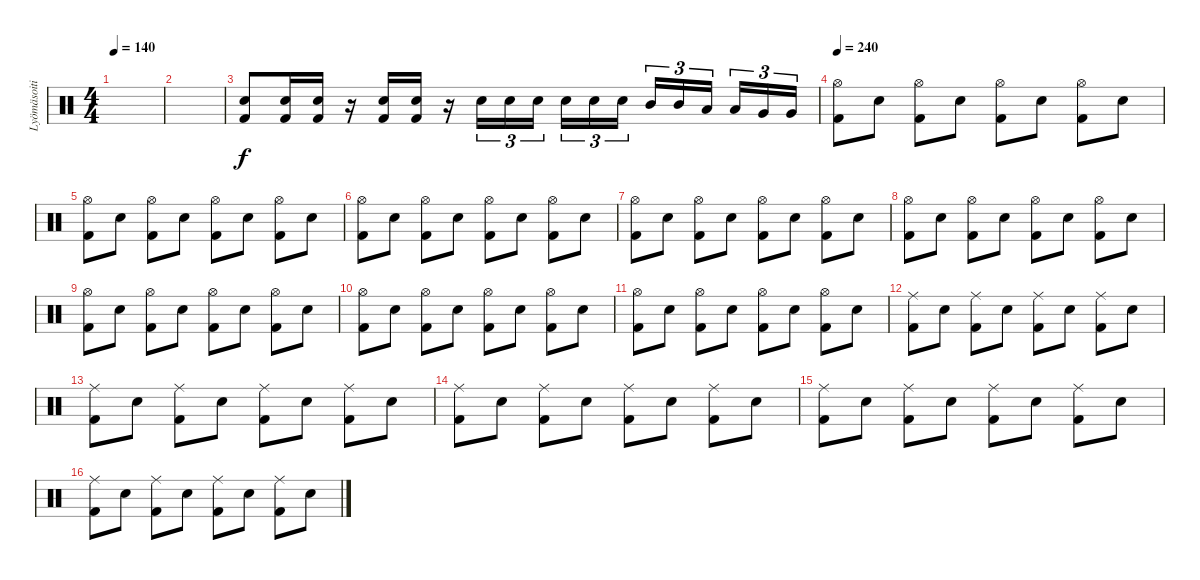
\track ("Lyömäsoitin" "Lyömäsoiti") {instrument percussion}
\staff {score}
\articulation defaults
\ts (4 4)
\tempo 140
\clef neutral
\ks c
|
|
("Snare (hit) 2" "Kick (hit) 2").8 ("Snare (hit) 2" "Kick (hit) 2").16 ("Snare (hit) 2" "Kick (hit) 2").16 r.16 ("Snare (hit) 2" "Kick (hit) 2").16 ("Snare (hit) 2" "Kick (hit) 2").16 r.16 "Snare (hit) 2".16{tu (3 2)} "Snare (hit) 2".16{tu (3 2)} "Snare (hit) 2".16{tu (3 2)} "Snare (hit) 2".16{tu (3 2)} "Snare (hit) 2".16{tu (3 2)} "Snare (hit) 2".16{tu (3 2)} "Mid Tom (hit)".16{tu (3 2)} "Mid Tom (hit)".16{tu (3 2)} "Low Tom (hit)".16{tu (3 2)} "Low Tom (hit)".16{tu (3 2)} "Very Low Tom (hit)".16{tu (3 2)} "Very Low Tom (hit)".16{tu (3 2)} |
\tempo 240
("Hi-Hat (open)" "Kick (hit) 2").8 "Snare (hit) 2".8 ("Hi-Hat (open)" "Kick (hit) 2").8 "Snare (hit) 2".8 ("Hi-Hat (open)" "Kick (hit) 2").8 "Snare (hit) 2".8 ("Hi-Hat (open)" "Kick (hit) 2").8 "Snare (hit) 2".8 |
("Hi-Hat (open)" "Kick (hit) 2").8 "Snare (hit) 2".8 ("Hi-Hat (open)" "Kick (hit) 2").8 "Snare (hit) 2".8 ("Hi-Hat (open)" "Kick (hit) 2").8 "Snare (hit) 2".8 ("Hi-Hat (open)" "Kick (hit) 2").8 "Snare (hit) 2".8 |
("Hi-Hat (open)" "Kick (hit) 2").8 "Snare (hit) 2".8 ("Hi-Hat (open)" "Kick (hit) 2").8 "Snare (hit) 2".8 ("Hi-Hat (open)" "Kick (hit) 2").8 "Snare (hit) 2".8 ("Hi-Hat (open)" "Kick (hit) 2").8 "Snare (hit) 2".8 |
("Hi-Hat (open)" "Kick (hit) 2").8 "Snare (hit) 2".8 ("Hi-Hat (open)" "Kick (hit) 2").8 "Snare (hit) 2".8 ("Hi-Hat (open)" "Kick (hit) 2").8 "Snare (hit) 2".8 ("Hi-Hat (open)" "Kick (hit) 2").8 "Snare (hit) 2".8 |
("Hi-Hat (open)" "Kick (hit) 2").8 "Snare (hit) 2".8 ("Hi-Hat (open)" "Kick (hit) 2").8 "Snare (hit) 2".8 ("Hi-Hat (open)" "Kick (hit) 2").8 "Snare (hit) 2".8 ("Hi-Hat (open)" "Kick (hit) 2").8 "Snare (hit) 2".8 |
("Hi-Hat (open)" "Kick (hit) 2").8 "Snare (hit) 2".8 ("Hi-Hat (open)" "Kick (hit) 2").8 "Snare (hit) 2".8 ("Hi-Hat (open)" "Kick (hit) 2").8 "Snare (hit) 2".8 ("Hi-Hat (open)" "Kick (hit) 2").8 "Snare (hit) 2".8 |
("Hi-Hat (open)" "Kick (hit) 2").8 "Snare (hit) 2".8 ("Hi-Hat (open)" "Kick (hit) 2").8 "Snare (hit) 2".8 ("Hi-Hat (open)" "Kick (hit) 2").8 "Snare (hit) 2".8 ("Hi-Hat (open)" "Kick (hit) 2").8 "Snare (hit) 2".8 |
("Hi-Hat (open)" "Kick (hit) 2").8 "Snare (hit) 2".8 ("Hi-Hat (open)" "Kick (hit) 2").8 "Snare (hit) 2".8 ("Hi-Hat (open)" "Kick (hit) 2").8 "Snare (hit) 2".8 ("Hi-Hat (open)" "Kick (hit) 2").8 "Snare (hit) 2".8 |
("Ride (middle)" "Kick (hit) 2").8 "Snare (hit) 2".8 ("Ride (middle)" "Kick (hit) 2").8 "Snare (hit) 2".8 ("Ride (middle)" "Kick (hit) 2").8 "Snare (hit) 2".8 ("Ride (middle)" "Kick (hit) 2").8 "Snare (hit) 2".8 |
("Ride (middle)" "Kick (hit) 2").8 "Snare (hit) 2".8 ("Ride (middle)" "Kick (hit) 2").8 "Snare (hit) 2".8 ("Ride (middle)" "Kick (hit) 2").8 "Snare (hit) 2".8 ("Ride (middle)" "Kick (hit) 2").8 "Snare (hit) 2".8 |
("Ride (middle)" "Kick (hit) 2").8 "Snare (hit) 2".8 ("Ride (middle)" "Kick (hit) 2").8 "Snare (hit) 2".8 ("Ride (middle)" "Kick (hit) 2").8 "Snare (hit) 2".8 ("Ride (middle)" "Kick (hit) 2").8 "Snare (hit) 2".8 |
("Ride (middle)" "Kick (hit) 2").8 "Snare (hit) 2".8 ("Ride (middle)" "Kick (hit) 2").8 "Snare (hit) 2".8 ("Ride (middle)" "Kick (hit) 2").8 "Snare (hit) 2".8 ("Ride (middle)" "Kick (hit) 2").8 "Snare (hit) 2".8 |
("Ride (middle)" "Kick (hit) 2").8 "Snare (hit) 2".8 ("Ride (middle)" "Kick (hit) 2").8 "Snare (hit) 2".8 ("Ride (middle)" "Kick (hit) 2").8 "Snare (hit) 2".8 ("Ride (middle)" "Kick (hit) 2").8 "Snare (hit) 2".8
